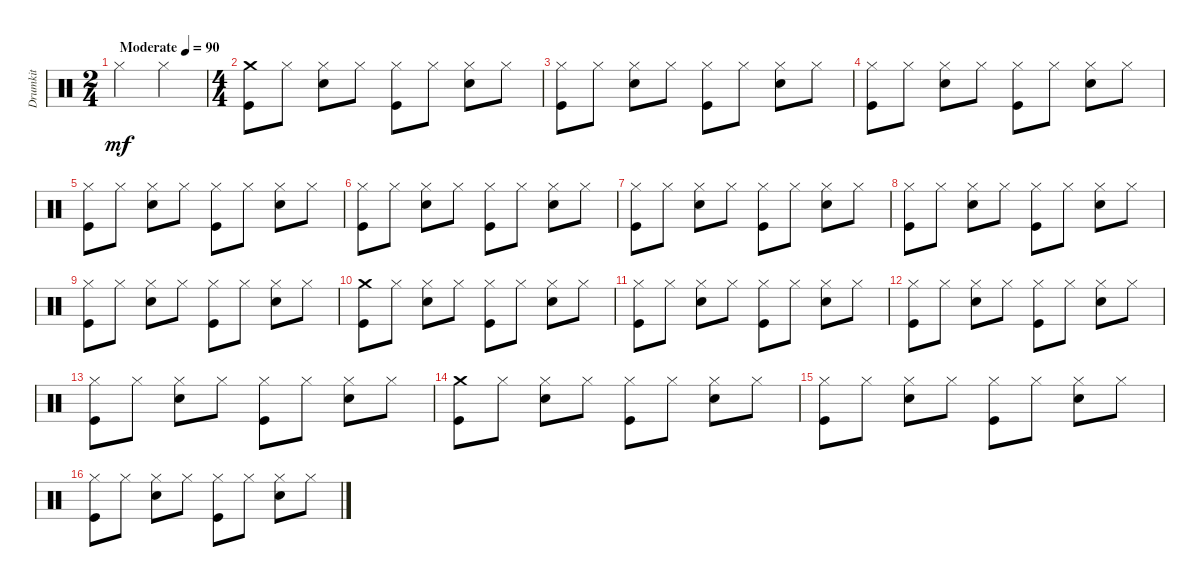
\track ("Drumkit" "Drumkit") {instrument percussion}
\staff {score}
\articulation defaults
\ts (2 4)
\tempo (90 "Moderate")
\clef neutral
\ks c "Hi-Hat (closed)".4{dy mf} "Hi-Hat (closed)".4
|
\ts (4 4)
("Crash medium (hit)" "Kick (hit)").8 "Hi-Hat (closed)".8 ("Hi-Hat (closed)" "Snare (hit) 2").8 "Hi-Hat (closed)".8 ("Hi-Hat (closed)" "Kick (hit)").8 "Hi-Hat (closed)".8 ("Hi-Hat (closed)" "Snare (hit) 2").8 "Hi-Hat (closed)".8 |
("Hi-Hat (closed)" "Kick (hit)").8 "Hi-Hat (closed)".8 ("Hi-Hat (closed)" "Snare (hit) 2").8 "Hi-Hat (closed)".8 ("Hi-Hat (closed)" "Kick (hit)").8 "Hi-Hat (closed)".8 ("Hi-Hat (closed)" "Snare (hit) 2").8 "Hi-Hat (closed)".8 |
("Hi-Hat (closed)" "Kick (hit)").8 "Hi-Hat (closed)".8 ("Hi-Hat (closed)" "Snare (hit) 2").8 "Hi-Hat (closed)".8 ("Hi-Hat (closed)" "Kick (hit)").8 "Hi-Hat (closed)".8 ("Hi-Hat (closed)" "Snare (hit) 2").8 "Hi-Hat (closed)".8 |
("Hi-Hat (closed)" "Kick (hit)").8 "Hi-Hat (closed)".8 ("Hi-Hat (closed)" "Snare (hit) 2").8 "Hi-Hat (closed)".8 ("Hi-Hat (closed)" "Kick (hit)").8 "Hi-Hat (closed)".8 ("Hi-Hat (closed)" "Snare (hit) 2").8 "Hi-Hat (closed)".8 |
("Hi-Hat (closed)" "Kick (hit)").8 "Hi-Hat (closed)".8 ("Hi-Hat (closed)" "Snare (hit) 2").8 "Hi-Hat (closed)".8 ("Hi-Hat (closed)" "Kick (hit)").8 "Hi-Hat (closed)".8 ("Hi-Hat (closed)" "Snare (hit) 2").8 "Hi-Hat (closed)".8 |
("Hi-Hat (closed)" "Kick (hit)").8 "Hi-Hat (closed)".8 ("Hi-Hat (closed)" "Snare (hit) 2").8 "Hi-Hat (closed)".8 ("Hi-Hat (closed)" "Kick (hit)").8 "Hi-Hat (closed)".8 ("Hi-Hat (closed)" "Snare (hit) 2").8 "Hi-Hat (closed)".8 |
("Hi-Hat (closed)" "Kick (hit)").8 "Hi-Hat (closed)".8 ("Hi-Hat (closed)" "Snare (hit) 2").8 "Hi-Hat (closed)".8 ("Hi-Hat (closed)" "Kick (hit)").8 "Hi-Hat (closed)".8 ("Hi-Hat (closed)" "Snare (hit) 2").8 "Hi-Hat (closed)".8 |
("Hi-Hat (closed)" "Kick (hit)").8 "Hi-Hat (closed)".8 ("Hi-Hat (closed)" "Snare (hit) 2").8 "Hi-Hat (closed)".8 ("Hi-Hat (closed)" "Kick (hit)").8 "Hi-Hat (closed)".8 ("Hi-Hat (closed)" "Snare (hit) 2").8 "Hi-Hat (closed)".8 |
("Kick (hit)" "Crash medium (hit)").8 "Hi-Hat (closed)".8 ("Hi-Hat (closed)" "Snare (hit) 2").8 "Hi-Hat (closed)".8 ("Hi-Hat (closed)" "Kick (hit)").8 "Hi-Hat (closed)".8 ("Hi-Hat (closed)" "Snare (hit) 2").8 "Hi-Hat (closed)".8 |
("Hi-Hat (closed)" "Kick (hit)").8 "Hi-Hat (closed)".8 ("Hi-Hat (closed)" "Snare (hit) 2").8 "Hi-Hat (closed)".8 ("Hi-Hat (closed)" "Kick (hit)").8 "Hi-Hat (closed)".8 ("Hi-Hat (closed)" "Snare (hit) 2").8 "Hi-Hat (closed)".8 |
("Hi-Hat (closed)" "Kick (hit)").8 "Hi-Hat (closed)".8 ("Hi-Hat (closed)" "Snare (hit) 2").8 "Hi-Hat (closed)".8 ("Hi-Hat (closed)" "Kick (hit)").8 "Hi-Hat (closed)".8 ("Hi-Hat (closed)" "Snare (hit) 2").8 "Hi-Hat (closed)".8 |
("Hi-Hat (closed)" "Kick (hit)").8 "Hi-Hat (closed)".8 ("Hi-Hat (closed)" "Snare (hit) 2").8 "Hi-Hat (closed)".8 ("Hi-Hat (closed)" "Kick (hit)").8 "Hi-Hat (closed)".8 ("Hi-Hat (closed)" "Snare (hit) 2").8 "Hi-Hat (closed)".8 |
("Kick (hit)" "Crash medium (hit)").8 "Hi-Hat (closed)".8 ("Hi-Hat (closed)" "Snare (hit) 2").8 "Hi-Hat (closed)".8 ("Hi-Hat (closed)" "Kick (hit)").8 "Hi-Hat (closed)".8 ("Hi-Hat (closed)" "Snare (hit) 2").8 "Hi-Hat (closed)".8 |
("Hi-Hat (closed)" "Kick (hit)").8 "Hi-Hat (closed)".8 ("Hi-Hat (closed)" "Snare (hit) 2").8 "Hi-Hat (closed)".8 ("Hi-Hat (closed)" "Kick (hit)").8 "Hi-Hat (closed)".8 ("Hi-Hat (closed)" "Snare (hit) 2").8 "Hi-Hat (closed)".8 |
("Hi-Hat (closed)" "Kick (hit)").8 "Hi-Hat (closed)".8 ("Hi-Hat (closed)" "Snare (hit) 2").8 "Hi-Hat (closed)".8 ("Hi-Hat (closed)" "Kick (hit)").8 "Hi-Hat (closed)".8 ("Hi-Hat (closed)" "Snare (hit) 2").8 "Hi-Hat (closed)".8
